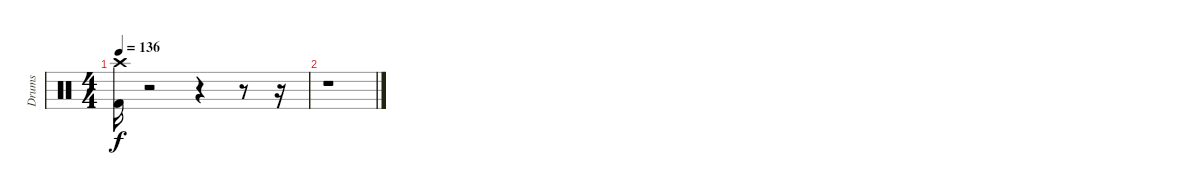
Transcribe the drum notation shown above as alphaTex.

\track ("Drums" "Drums") {instrument percussion}
\staff {score}
\articulation defaults
\ts (4 4)
\tempo 136
\clef neutral
\ks c
("Kick (hit) 2" "Crash high (hit)").16{dy f} r.2 r.4 r.8 r.16 |
r.1
